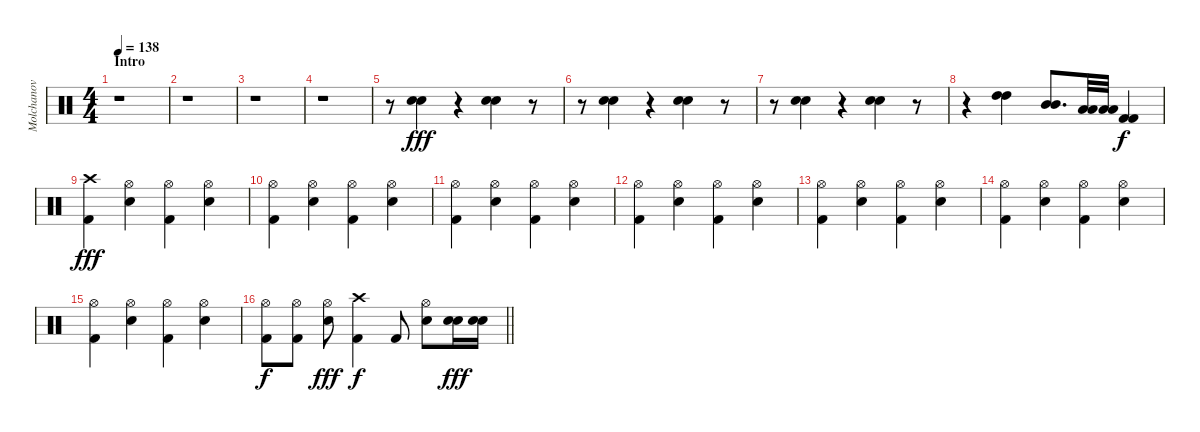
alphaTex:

\track ("Molchanov" "Molchanov") {instrument percussion}
\staff {score}
\articulation defaults
\ts (4 4)
\section ("" "Intro")
\tempo 138
\clef neutral
\ks c
r.1{dy fff} |
r.1 |
r.1 |
r.1 |
r.8 ("Electric Snare (hit)" "Electric Snare (hit)").4 r.4 ("Electric Snare (hit)" "Electric Snare (hit)").4 r.8 |
r.8 ("Electric Snare (hit)" "Electric Snare (hit)").4 r.4 ("Electric Snare (hit)" "Electric Snare (hit)").4 r.8 |
r.8 ("Electric Snare (hit)" "Electric Snare (hit)").4 r.4 ("Electric Snare (hit)" "Electric Snare (hit)").4 r.8 |
r.4 ("High Tom (hit)" "High Tom (hit)").4 ("Mid Tom (hit)" "Mid Tom (hit)").8{d} ("Low Tom (hit)" "Low Tom (hit)").32 ("Low Tom (hit)" "Low Tom (hit)").32 ("Kick (hit) 2" "Kick (hit) 2").4{dy f} |
("Crash high (hit)" "Kick (hit) 2").4{dy fff} ("Hi-Hat (open)" "Electric Snare (hit)").4 ("Hi-Hat (open)" "Kick (hit) 2").4 ("Hi-Hat (open)" "Electric Snare (hit)").4 |
("Hi-Hat (open)" "Kick (hit) 2").4 ("Hi-Hat (open)" "Electric Snare (hit)").4 ("Hi-Hat (open)" "Kick (hit) 2").4 ("Hi-Hat (open)" "Electric Snare (hit)").4 |
("Hi-Hat (open)" "Kick (hit) 2").4 ("Hi-Hat (open)" "Electric Snare (hit)").4 ("Hi-Hat (open)" "Kick (hit) 2").4 ("Hi-Hat (open)" "Electric Snare (hit)").4 |
("Hi-Hat (open)" "Kick (hit) 2").4 ("Hi-Hat (open)" "Electric Snare (hit)").4 ("Hi-Hat (open)" "Kick (hit) 2").4 ("Hi-Hat (open)" "Electric Snare (hit)").4 |
("Hi-Hat (open)" "Kick (hit) 2").4 ("Hi-Hat (open)" "Electric Snare (hit)").4 ("Hi-Hat (open)" "Kick (hit) 2").4 ("Hi-Hat (open)" "Electric Snare (hit)").4 |
("Hi-Hat (open)" "Kick (hit) 2").4 ("Hi-Hat (open)" "Electric Snare (hit)").4 ("Hi-Hat (open)" "Kick (hit) 2").4 ("Hi-Hat (open)" "Electric Snare (hit)").4 |
("Hi-Hat (open)" "Kick (hit) 2").4 ("Hi-Hat (open)" "Electric Snare (hit)").4 ("Hi-Hat (open)" "Kick (hit) 2").4 ("Hi-Hat (open)" "Electric Snare (hit)").4 |
\barLineRight lightlight
("Hi-Hat (open)" "Kick (hit) 2").8{dy f} ("Hi-Hat (open)" "Kick (hit) 2").8 ("Hi-Hat (open)" "Electric Snare (hit)").8{dy fff} ("Crash high (hit)" "Kick (hit) 2").4{dy f} "Kick (hit) 2".8 ("Hi-Hat (open)" "Electric Snare (hit)").8 ("Electric Snare (hit)" "Electric Snare (hit)").16{dy fff} ("Electric Snare (hit)" "Electric Snare (hit)").16
